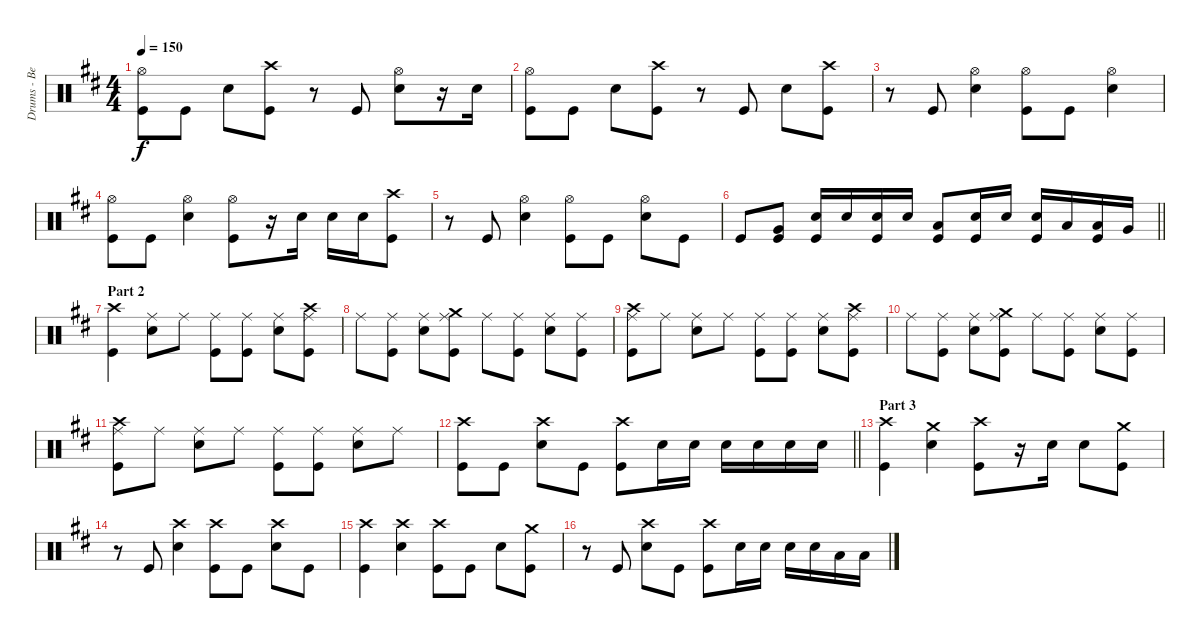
\track ("Drums - Ben Johnston" "Drums - Be") {instrument percussion}
\staff {score}
\articulation defaults
\ts (4 4)
\tempo 150
\clef neutral
\ks d
("Hi-Hat (open)" "Kick (hit)").8{dy f} "Kick (hit)".8 "Snare (hit) 2".8 ("Crash high (hit)" "Kick (hit)").8 r.8 "Kick (hit)".8 ("Hi-Hat (open)" "Snare (hit) 2").8 r.16 "Snare (hit) 2".16 |
("Hi-Hat (open)" "Kick (hit)").8 "Kick (hit)".8 "Snare (hit) 2".8 ("Crash high (hit)" "Kick (hit)").8 r.8 "Kick (hit)".8 "Snare (hit) 2".8 ("Crash high (hit)" "Kick (hit)").8 |
r.8 "Kick (hit)".8 ("Hi-Hat (open)" "Snare (hit) 2").4 ("Hi-Hat (open)" "Kick (hit)").8 "Kick (hit)".8 ("Hi-Hat (open)" "Snare (hit) 2").4 |
("Hi-Hat (open)" "Kick (hit)").8 "Kick (hit)".8 ("Hi-Hat (open)" "Snare (hit) 2").4 ("Hi-Hat (open)" "Kick (hit)").8 r.16 "Snare (hit) 2".16 "Snare (hit) 2".16 "Snare (hit) 2".16 ("Crash high (hit)" "Kick (hit)").8 |
r.8 "Kick (hit)".8 ("Hi-Hat (open)" "Snare (hit) 2").4 ("Hi-Hat (open)" "Kick (hit)").8 "Kick (hit)".8 ("Hi-Hat (open)" "Snare (hit) 2").8 "Kick (hit)".8 |
\barLineRight lightlight "Kick (hit)".8
("Very Low Tom (hit)" "Kick (hit)").8 ("Snare (hit) 2" "Kick (hit)").16 "Snare (hit) 2".16 ("Snare (hit) 2" "Kick (hit)").16 "Snare (hit) 2".16 ("Low Tom (hit)" "Kick (hit)").8 ("Snare (hit) 2" "Kick (hit)").16 "Snare (hit) 2".16 ("Snare (hit) 2" "Kick (hit)").16 "Low Tom (hit)".16 ("Low Tom (hit)" "Kick (hit)").16 "Very Low Tom (hit)".16 |
\section ("" "Part 2")
("Crash high (hit)" "Kick (hit)").4 ("Ride (middle)" "Snare (hit) 2").8 "Ride (middle)".8 ("Ride (middle)" "Kick (hit)").8 ("Ride (middle)" "Kick (hit)").8 ("Ride (middle)" "Snare (hit) 2").8 ("Ride (middle)" "Crash high (hit)" "Kick (hit)").8 |
"Ride (middle)".8 ("Ride (middle)" "Kick (hit)").8 ("Ride (middle)" "Snare (hit) 2").8 ("Ride (middle)" "Crash medium (hit)" "Kick (hit)").8 "Ride (middle)".8 ("Ride (middle)" "Kick (hit)").8 ("Ride (middle)" "Snare (hit) 2").8 ("Ride (middle)" "Kick (hit)").8 |
("Ride (middle)" "Crash high (hit)" "Kick (hit)").8 "Ride (middle)".8 ("Ride (middle)" "Snare (hit) 2").8 "Ride (middle)".8 ("Ride (middle)" "Kick (hit)").8 ("Ride (middle)" "Kick (hit)").8 ("Ride (middle)" "Snare (hit) 2").8 ("Ride (middle)" "Crash high (hit)" "Kick (hit)").8 |
"Ride (middle)".8 ("Ride (middle)" "Kick (hit)").8 ("Ride (middle)" "Snare (hit) 2").8 ("Ride (middle)" "Crash medium (hit)" "Kick (hit)").8 "Ride (middle)".8 ("Ride (middle)" "Kick (hit)").8 ("Ride (middle)" "Snare (hit) 2").8 ("Ride (middle)" "Kick (hit)").8 |
("Ride (middle)" "Crash high (hit)" "Kick (hit)").8 "Ride (middle)".8 ("Ride (middle)" "Snare (hit) 2").8 "Ride (middle)".8 ("Ride (middle)" "Kick (hit)").8 ("Ride (middle)" "Kick (hit)").8 ("Ride (middle)" "Snare (hit) 2").8 "Ride (middle)".8 |
\barLineRight lightlight
("Crash high (hit)" "Kick (hit)").8 "Kick (hit)".8 ("Crash high (hit)" "Snare (hit) 2").8 "Kick (hit)".8 ("Crash high (hit)" "Kick (hit)").8 "Snare (hit) 2".16 "Snare (hit) 2".16 "Snare (hit) 2".16 "Snare (hit) 2".16 "Snare (hit) 2".16 "Snare (hit) 2".16 |
\section ("" "Part 3")
("Crash high (hit)" "Kick (hit)").4 ("Crash medium (hit)" "Snare (hit) 2").4 ("Crash high (hit)" "Kick (hit)").8 r.16 "Snare (hit) 2".16 "Snare (hit) 2".8 ("Crash medium (hit)" "Kick (hit)").8 |
r.8 "Kick (hit)".8 ("Crash high (hit)" "Snare (hit) 2").4 ("Crash high (hit)" "Kick (hit)").8 "Kick (hit)".8 ("Crash high (hit)" "Snare (hit) 2").8 "Kick (hit)".8 |
("Crash high (hit)" "Kick (hit)").4 ("Crash high (hit)" "Snare (hit) 2").4 ("Crash high (hit)" "Kick (hit)").8 "Kick (hit)".8 "Snare (hit) 2".8 ("Crash medium (hit)" "Kick (hit)").8 |
r.8 "Kick (hit)".8 ("Crash high (hit)" "Snare (hit) 2").8 "Kick (hit)".8 ("Crash high (hit)" "Kick (hit)").8 "Snare (hit) 2".16 "Snare (hit) 2".16 "Snare (hit) 2".16 "Snare (hit) 2".16 "Low Tom (hit)".16 "Low Tom (hit)".16
